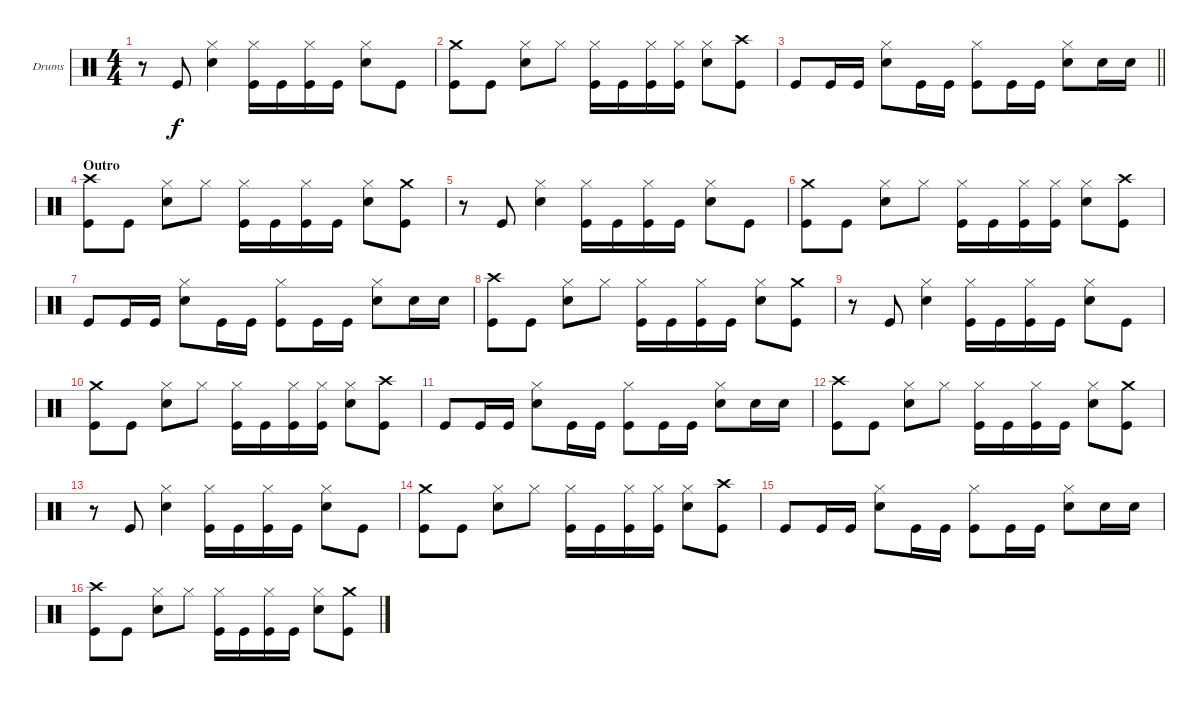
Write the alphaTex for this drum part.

\bracketExtendMode groupsimilarinstruments
\firstSystemTrackNameOrientation horizontal
\otherSystemsTrackNameOrientation horizontal
\track ("Percussion" "Drums") {instrument percussion}
\staff {score}
\articulation defaults
\ts (4 4)
\tempo (142 hide)
\clef neutral
\ks c
r.8{dy f} "Kick (hit)".8 ("Hi-Hat (closed)" "Snare (hit) 2").4 ("Hi-Hat (closed)" "Kick (hit)").16 "Kick (hit)".16 ("Hi-Hat (closed)" "Kick (hit)").16 "Kick (hit)".16 ("Hi-Hat (closed)" "Snare (hit) 2").8 "Kick (hit)".8 |
("Crash medium (hit)" "Kick (hit)").8 "Kick (hit)".8 ("Hi-Hat (closed)" "Snare (hit) 2").8 "Hi-Hat (closed)".8 ("Hi-Hat (closed)" "Kick (hit)").16 "Kick (hit)".16 ("Hi-Hat (closed)" "Kick (hit)").16 ("Hi-Hat (closed)" "Kick (hit)").16 ("Hi-Hat (closed)" "Snare (hit) 2").8 ("Crash high (hit)" "Kick (hit)").8 |
\barLineRight lightlight "Kick (hit)".8 "Kick (hit)".16 "Kick (hit)".16
("Hi-Hat (closed)" "Snare (hit) 2").8 "Kick (hit)".16 "Kick (hit)".16 ("Hi-Hat (closed)" "Kick (hit)").8 "Kick (hit)".16 "Kick (hit)".16 ("Hi-Hat (closed)" "Snare (hit) 2").8 "Snare (hit) 2".16 "Snare (hit) 2".16 |
\section ("" "Outro")
("Crash high (hit)" "Kick (hit)").8 "Kick (hit)".8 ("Hi-Hat (closed)" "Snare (hit) 2").8 "Hi-Hat (closed)".8 ("Hi-Hat (closed)" "Kick (hit)").16 "Kick (hit)".16 ("Hi-Hat (closed)" "Kick (hit)").16 "Kick (hit)".16 ("Hi-Hat (closed)" "Snare (hit) 2").8 ("Crash medium (hit)" "Kick (hit)").8 |
r.8 "Kick (hit)".8 ("Hi-Hat (closed)" "Snare (hit) 2").4 ("Hi-Hat (closed)" "Kick (hit)").16 "Kick (hit)".16 ("Hi-Hat (closed)" "Kick (hit)").16 "Kick (hit)".16 ("Hi-Hat (closed)" "Snare (hit) 2").8 "Kick (hit)".8 |
("Crash medium (hit)" "Kick (hit)").8 "Kick (hit)".8 ("Hi-Hat (closed)" "Snare (hit) 2").8 "Hi-Hat (closed)".8 ("Hi-Hat (closed)" "Kick (hit)").16 "Kick (hit)".16 ("Hi-Hat (closed)" "Kick (hit)").16 ("Hi-Hat (closed)" "Kick (hit)").16 ("Hi-Hat (closed)" "Snare (hit) 2").8 ("Crash high (hit)" "Kick (hit)").8 |
"Kick (hit)".8 "Kick (hit)".16 "Kick (hit)".16 ("Hi-Hat (closed)" "Snare (hit) 2").8 "Kick (hit)".16 "Kick (hit)".16 ("Hi-Hat (closed)" "Kick (hit)").8 "Kick (hit)".16 "Kick (hit)".16 ("Hi-Hat (closed)" "Snare (hit) 2").8 "Snare (hit) 2".16 "Snare (hit) 2".16 |
("Crash high (hit)" "Kick (hit)").8 "Kick (hit)".8 ("Hi-Hat (closed)" "Snare (hit) 2").8 "Hi-Hat (closed)".8 ("Hi-Hat (closed)" "Kick (hit)").16 "Kick (hit)".16 ("Hi-Hat (closed)" "Kick (hit)").16 "Kick (hit)".16 ("Hi-Hat (closed)" "Snare (hit) 2").8 ("Crash medium (hit)" "Kick (hit)").8 |
r.8 "Kick (hit)".8 ("Hi-Hat (closed)" "Snare (hit) 2").4 ("Hi-Hat (closed)" "Kick (hit)").16 "Kick (hit)".16 ("Hi-Hat (closed)" "Kick (hit)").16 "Kick (hit)".16 ("Hi-Hat (closed)" "Snare (hit) 2").8 "Kick (hit)".8 |
("Crash medium (hit)" "Kick (hit)").8 "Kick (hit)".8 ("Hi-Hat (closed)" "Snare (hit) 2").8 "Hi-Hat (closed)".8 ("Hi-Hat (closed)" "Kick (hit)").16 "Kick (hit)".16 ("Hi-Hat (closed)" "Kick (hit)").16 ("Hi-Hat (closed)" "Kick (hit)").16 ("Hi-Hat (closed)" "Snare (hit) 2").8 ("Crash high (hit)" "Kick (hit)").8 |
"Kick (hit)".8 "Kick (hit)".16 "Kick (hit)".16 ("Hi-Hat (closed)" "Snare (hit) 2").8 "Kick (hit)".16 "Kick (hit)".16 ("Hi-Hat (closed)" "Kick (hit)").8 "Kick (hit)".16 "Kick (hit)".16 ("Hi-Hat (closed)" "Snare (hit) 2").8 "Snare (hit) 2".16 "Snare (hit) 2".16 |
("Crash high (hit)" "Kick (hit)").8 "Kick (hit)".8 ("Hi-Hat (closed)" "Snare (hit) 2").8 "Hi-Hat (closed)".8 ("Hi-Hat (closed)" "Kick (hit)").16 "Kick (hit)".16 ("Hi-Hat (closed)" "Kick (hit)").16 "Kick (hit)".16 ("Hi-Hat (closed)" "Snare (hit) 2").8 ("Crash medium (hit)" "Kick (hit)").8 |
r.8 "Kick (hit)".8 ("Hi-Hat (closed)" "Snare (hit) 2").4 ("Hi-Hat (closed)" "Kick (hit)").16 "Kick (hit)".16 ("Hi-Hat (closed)" "Kick (hit)").16 "Kick (hit)".16 ("Hi-Hat (closed)" "Snare (hit) 2").8 "Kick (hit)".8 |
("Crash medium (hit)" "Kick (hit)").8 "Kick (hit)".8 ("Hi-Hat (closed)" "Snare (hit) 2").8 "Hi-Hat (closed)".8 ("Hi-Hat (closed)" "Kick (hit)").16 "Kick (hit)".16 ("Hi-Hat (closed)" "Kick (hit)").16 ("Hi-Hat (closed)" "Kick (hit)").16 ("Hi-Hat (closed)" "Snare (hit) 2").8 ("Crash high (hit)" "Kick (hit)").8 |
"Kick (hit)".8 "Kick (hit)".16 "Kick (hit)".16 ("Hi-Hat (closed)" "Snare (hit) 2").8 "Kick (hit)".16 "Kick (hit)".16 ("Hi-Hat (closed)" "Kick (hit)").8 "Kick (hit)".16 "Kick (hit)".16 ("Hi-Hat (closed)" "Snare (hit) 2").8 "Snare (hit) 2".16 "Snare (hit) 2".16 |
("Crash high (hit)" "Kick (hit)").8 "Kick (hit)".8 ("Hi-Hat (closed)" "Snare (hit) 2").8 "Hi-Hat (closed)".8 ("Hi-Hat (closed)" "Kick (hit)").16 "Kick (hit)".16 ("Hi-Hat (closed)" "Kick (hit)").16 "Kick (hit)".16 ("Hi-Hat (closed)" "Snare (hit) 2").8 ("Crash medium (hit)" "Kick (hit)").8
